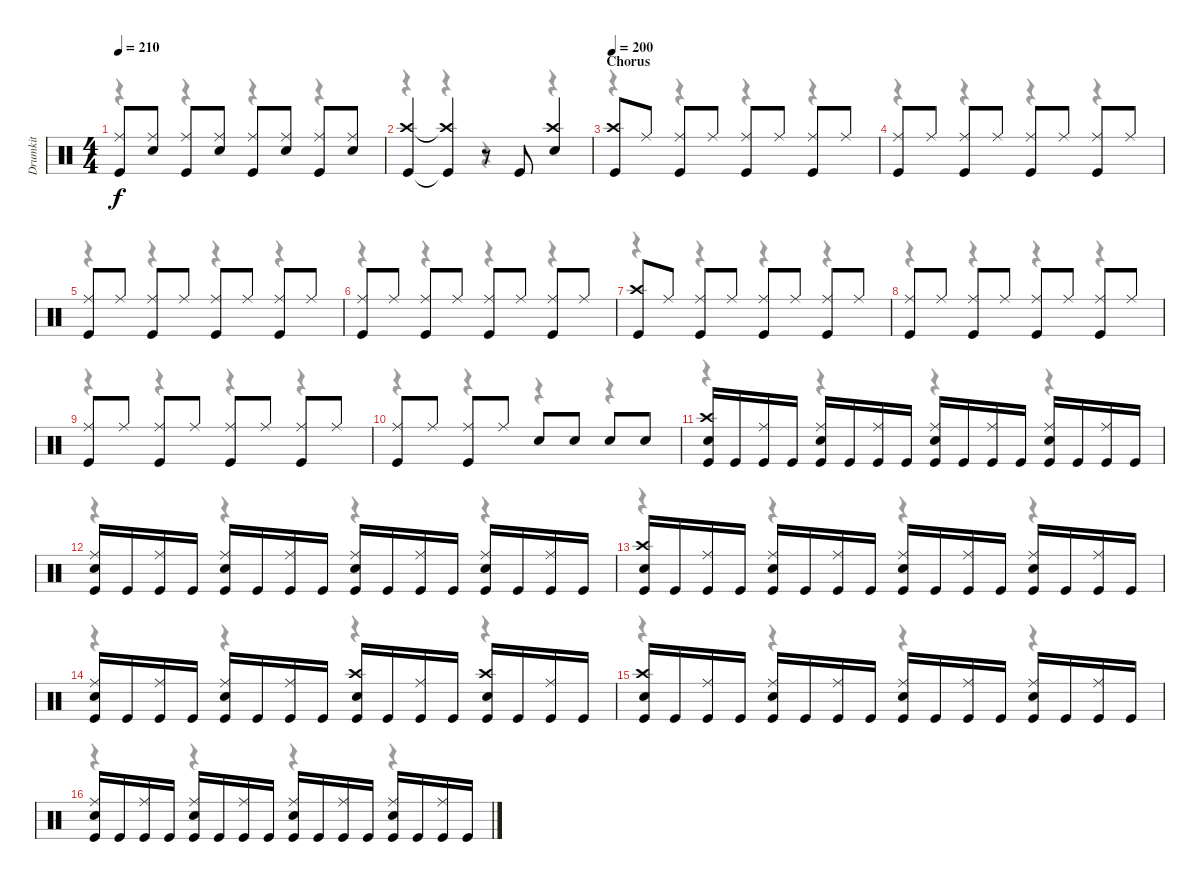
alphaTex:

\track ("Drumkit" "Drumkit") {instrument percussion}
\staff {score}
\articulation defaults
\voice
\ts (4 4)
\tempo 210
\clef neutral
\ks c
("Ride (middle)" "Kick (hit)").8{dy f} ("Ride (middle)" "Snare (hit) 2").8 ("Ride (middle)" "Kick (hit)").8 ("Ride (middle)" "Snare (hit) 2").8 ("Ride (middle)" "Kick (hit)").8 ("Ride (middle)" "Snare (hit) 2").8 ("Ride (middle)" "Kick (hit)").8 ("Ride (middle)" "Snare (hit) 2").8 |
("Crash high (hit)" "Kick (hit)").4 ("Crash high (hit)"{t} "Kick (hit)"{t}).4 r.8 "Kick (hit)".8 ("Crash high (hit)" "Snare (hit) 2").4 |
\section ("" "Chorus")
\tempo 200
("Crash high (hit)" "Kick (hit)").8 "Ride (middle)".8 ("Ride (middle)" "Kick (hit)").8 "Ride (middle)".8 ("Ride (middle)" "Kick (hit)").8 "Ride (middle)".8 ("Ride (middle)" "Kick (hit)").8 "Ride (middle)".8 |
("Ride (middle)" "Kick (hit)").8 "Ride (middle)".8 ("Ride (middle)" "Kick (hit)").8 "Ride (middle)".8 ("Ride (middle)" "Kick (hit)").8 "Ride (middle)".8 ("Ride (middle)" "Kick (hit)").8 "Ride (middle)".8 |
("Ride (middle)" "Kick (hit)").8 "Ride (middle)".8 ("Ride (middle)" "Kick (hit)").8 "Ride (middle)".8 ("Ride (middle)" "Kick (hit)").8 "Ride (middle)".8 ("Ride (middle)" "Kick (hit)").8 "Ride (middle)".8 |
("Ride (middle)" "Kick (hit)").8 "Ride (middle)".8 ("Ride (middle)" "Kick (hit)").8 "Ride (middle)".8 ("Ride (middle)" "Kick (hit)").8 "Ride (middle)".8 ("Ride (middle)" "Kick (hit)").8 "Ride (middle)".8 |
("Crash high (hit)" "Kick (hit)").8 "Ride (middle)".8 ("Ride (middle)" "Kick (hit)").8 "Ride (middle)".8 ("Ride (middle)" "Kick (hit)").8 "Ride (middle)".8 ("Ride (middle)" "Kick (hit)").8 "Ride (middle)".8 |
("Ride (middle)" "Kick (hit)").8 "Ride (middle)".8 ("Ride (middle)" "Kick (hit)").8 "Ride (middle)".8 ("Ride (middle)" "Kick (hit)").8 "Ride (middle)".8 ("Ride (middle)" "Kick (hit)").8 "Ride (middle)".8 |
("Ride (middle)" "Kick (hit)").8 "Ride (middle)".8 ("Ride (middle)" "Kick (hit)").8 "Ride (middle)".8 ("Ride (middle)" "Kick (hit)").8 "Ride (middle)".8 ("Ride (middle)" "Kick (hit)").8 "Ride (middle)".8 |
("Ride (middle)" "Kick (hit)").8 "Ride (middle)".8 ("Ride (middle)" "Kick (hit)").8 "Ride (middle)".8 "Snare (hit) 2".8 "Snare (hit) 2".8 "Snare (hit) 2".8 "Snare (hit) 2".8 |
("Crash high (hit)" "Snare (hit) 2" "Kick (hit)").16 "Kick (hit)".16 ("Ride (middle)" "Kick (hit)").16 "Kick (hit)".16 ("Ride (middle)" "Snare (hit) 2" "Kick (hit)").16 "Kick (hit)".16 ("Ride (middle)" "Kick (hit)").16 "Kick (hit)".16 ("Ride (middle)" "Snare (hit) 2" "Kick (hit)").16 "Kick (hit)".16 ("Ride (middle)" "Kick (hit)").16 "Kick (hit)".16 ("Ride (middle)" "Snare (hit) 2" "Kick (hit)").16 "Kick (hit)".16 ("Ride (middle)" "Kick (hit)").16 "Kick (hit)".16 |
("Ride (middle)" "Snare (hit) 2" "Kick (hit)").16 "Kick (hit)".16 ("Ride (middle)" "Kick (hit)").16 "Kick (hit)".16 ("Ride (middle)" "Snare (hit) 2" "Kick (hit)").16 "Kick (hit)".16 ("Ride (middle)" "Kick (hit)").16 "Kick (hit)".16 ("Ride (middle)" "Snare (hit) 2" "Kick (hit)").16 "Kick (hit)".16 ("Ride (middle)" "Kick (hit)").16 "Kick (hit)".16 ("Ride (middle)" "Snare (hit) 2" "Kick (hit)").16 "Kick (hit)".16 ("Ride (middle)" "Kick (hit)").16 "Kick (hit)".16 |
("Crash high (hit)" "Snare (hit) 2" "Kick (hit)").16 "Kick (hit)".16 ("Ride (middle)" "Kick (hit)").16 "Kick (hit)".16 ("Ride (middle)" "Snare (hit) 2" "Kick (hit)").16 "Kick (hit)".16 ("Ride (middle)" "Kick (hit)").16 "Kick (hit)".16 ("Ride (middle)" "Snare (hit) 2" "Kick (hit)").16 "Kick (hit)".16 ("Ride (middle)" "Kick (hit)").16 "Kick (hit)".16 ("Ride (middle)" "Snare (hit) 2" "Kick (hit)").16 "Kick (hit)".16 ("Ride (middle)" "Kick (hit)").16 "Kick (hit)".16 |
("Ride (middle)" "Snare (hit) 2" "Kick (hit)").16 "Kick (hit)".16 ("Ride (middle)" "Kick (hit)").16 "Kick (hit)".16 ("Ride (middle)" "Snare (hit) 2" "Kick (hit)").16 "Kick (hit)".16 ("Ride (middle)" "Kick (hit)").16 "Kick (hit)".16 ("Crash high (hit)" "Snare (hit) 2" "Kick (hit)").16 "Kick (hit)".16 ("Ride (middle)" "Kick (hit)").16 "Kick (hit)".16 ("Crash high (hit)" "Snare (hit) 2" "Kick (hit)").16 "Kick (hit)".16 ("Ride (middle)" "Kick (hit)").16 "Kick (hit)".16 |
("Crash high (hit)" "Snare (hit) 2" "Kick (hit)").16 "Kick (hit)".16 ("Ride (middle)" "Kick (hit)").16 "Kick (hit)".16 ("Ride (middle)" "Snare (hit) 2" "Kick (hit)").16 "Kick (hit)".16 ("Ride (middle)" "Kick (hit)").16 "Kick (hit)".16 ("Ride (middle)" "Snare (hit) 2" "Kick (hit)").16 "Kick (hit)".16 ("Ride (middle)" "Kick (hit)").16 "Kick (hit)".16 ("Ride (middle)" "Snare (hit) 2" "Kick (hit)").16 "Kick (hit)".16 ("Ride (middle)" "Kick (hit)").16 "Kick (hit)".16 |
("Ride (middle)" "Snare (hit) 2" "Kick (hit)").16 "Kick (hit)".16 ("Ride (middle)" "Kick (hit)").16 "Kick (hit)".16 ("Ride (middle)" "Snare (hit) 2" "Kick (hit)").16 "Kick (hit)".16 ("Ride (middle)" "Kick (hit)").16 "Kick (hit)".16 ("Ride (middle)" "Snare (hit) 2" "Kick (hit)").16 "Kick (hit)".16 ("Ride (middle)" "Kick (hit)").16 "Kick (hit)".16 ("Ride (middle)" "Snare (hit) 2" "Kick (hit)").16 "Kick (hit)".16 ("Ride (middle)" "Kick (hit)").16 "Kick (hit)".16
\voice
\clef neutral
\ottava regular
\simile none
\ks c
r.4{dy f} r.4 r.4 r.4 |
r.4 r.4 r.4 r.4 |
r.4 r.4 r.4 r.4 |
r.4 r.4 r.4 r.4 |
r.4 r.4 r.4 r.4 |
r.4 r.4 r.4 r.4 |
r.4 r.4 r.4 r.4 |
r.4 r.4 r.4 r.4 |
r.4 r.4 r.4 r.4 |
r.4 r.4 r.4 r.4 |
r.4 r.4 r.4 r.4 |
r.4 r.4 r.4 r.4 |
r.4 r.4 r.4 r.4 |
r.4 r.4 r.4 r.4 |
r.4 r.4 r.4 r.4 |
r.4 r.4 r.4 r.4
